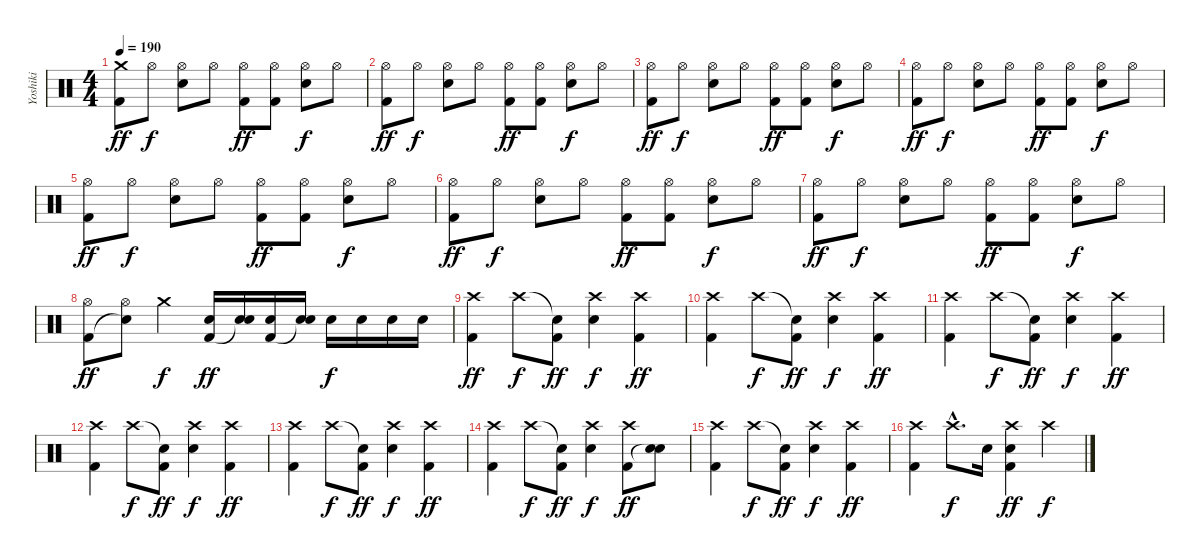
\track ("Yoshiki" "Yoshiki") {instrument percussion}
\staff {score}
\articulation defaults
\ts (4 4)
\tempo 190
\clef neutral
\ks c
("Crash medium (hit)" "Kick (hit) 2").8{dy ff} "Hi-Hat (open)".8{dy f} ("Hi-Hat (open)" "Snare (hit) 2").8 "Hi-Hat (open)".8 ("Hi-Hat (open)" "Kick (hit) 2").8{dy ff} ("Hi-Hat (open)" "Kick (hit) 2").8 ("Hi-Hat (open)" "Snare (hit) 2").8{dy f} "Hi-Hat (open)".8 |
("Hi-Hat (open)" "Kick (hit) 2").8{dy ff} "Hi-Hat (open)".8{dy f} ("Hi-Hat (open)" "Snare (hit) 2").8 "Hi-Hat (open)".8 ("Hi-Hat (open)" "Kick (hit) 2").8{dy ff} ("Hi-Hat (open)" "Kick (hit) 2").8 ("Hi-Hat (open)" "Snare (hit) 2").8{dy f} "Hi-Hat (open)".8 |
("Hi-Hat (open)" "Kick (hit) 2").8{dy ff} "Hi-Hat (open)".8{dy f} ("Hi-Hat (open)" "Snare (hit) 2").8 "Hi-Hat (open)".8 ("Hi-Hat (open)" "Kick (hit) 2").8{dy ff} ("Hi-Hat (open)" "Kick (hit) 2").8 ("Hi-Hat (open)" "Snare (hit) 2").8{dy f} "Hi-Hat (open)".8 |
("Hi-Hat (open)" "Kick (hit) 2").8{dy ff} "Hi-Hat (open)".8{dy f} ("Hi-Hat (open)" "Snare (hit) 2").8 "Hi-Hat (open)".8 ("Hi-Hat (open)" "Kick (hit) 2").8{dy ff} ("Hi-Hat (open)" "Kick (hit) 2").8 ("Hi-Hat (open)" "Snare (hit) 2").8{dy f} "Hi-Hat (open)".8 |
("Hi-Hat (open)" "Kick (hit) 2").8{dy ff} "Hi-Hat (open)".8{dy f} ("Hi-Hat (open)" "Snare (hit) 2").8 "Hi-Hat (open)".8 ("Hi-Hat (open)" "Kick (hit) 2").8{dy ff} ("Hi-Hat (open)" "Kick (hit) 2").8 ("Hi-Hat (open)" "Snare (hit) 2").8{dy f} "Hi-Hat (open)".8 |
("Hi-Hat (open)" "Kick (hit) 2").8{dy ff} "Hi-Hat (open)".8{dy f} ("Hi-Hat (open)" "Snare (hit) 2").8 "Hi-Hat (open)".8 ("Hi-Hat (open)" "Kick (hit) 2").8{dy ff} ("Hi-Hat (open)" "Kick (hit) 2").8 ("Hi-Hat (open)" "Snare (hit) 2").8{dy f} "Hi-Hat (open)".8 |
("Hi-Hat (open)" "Kick (hit) 2").8{dy ff} "Hi-Hat (open)".8{dy f} ("Hi-Hat (open)" "Snare (hit) 2").8 "Hi-Hat (open)".8 ("Hi-Hat (open)" "Kick (hit) 2").8{dy ff} ("Hi-Hat (open)" "Kick (hit) 2").8 ("Hi-Hat (open)" "Snare (hit) 2").8{dy f} "Hi-Hat (open)".8 |
("Hi-Hat (open)" "Kick (hit) 2").8{dy ff} ("Hi-Hat (open)" "Snare (hit)"{t}).8 "Crash medium (hit)".4{dy f} ("Snare (hit) 2" "Kick (hit) 2").16{dy ff} ("Snare (hit) 2" "Snare (hit)"{t}).16 ("Snare (hit) 2" "Kick (hit) 2").16 ("Snare (hit) 2" "Snare (hit)"{t}).16 "Snare (hit) 2".16{dy f} "Snare (hit) 2".16 "Snare (hit) 2".16 "Snare (hit) 2".16 |
("Crash high (hit)" "Kick (hit) 2").4{dy ff} "Crash high (hit)".8{dy f} ("Snare (hit)"{t} "Kick (hit) 2").8{dy ff} ("Crash high (hit)" "Snare (hit) 2").4{dy f} ("Crash high (hit)" "Kick (hit) 2").4{dy ff} |
("Crash high (hit)" "Kick (hit) 2").4 "Crash high (hit)".8{dy f} ("Snare (hit)"{t} "Kick (hit) 2").8{dy ff} ("Crash high (hit)" "Snare (hit) 2").4{dy f} ("Crash high (hit)" "Kick (hit) 2").4{dy ff} |
("Crash high (hit)" "Kick (hit) 2").4 "Crash high (hit)".8{dy f} ("Snare (hit)"{t} "Kick (hit) 2").8{dy ff} ("Crash high (hit)" "Snare (hit) 2").4{dy f} ("Crash high (hit)" "Kick (hit) 2").4{dy ff} |
("Crash high (hit)" "Kick (hit) 2").4 "Crash high (hit)".8{dy f} ("Snare (hit)"{t} "Kick (hit) 2").8{dy ff} ("Crash high (hit)" "Snare (hit) 2").4{dy f} ("Crash high (hit)" "Kick (hit) 2").4{dy ff} |
("Crash high (hit)" "Kick (hit) 2").4 "Crash high (hit)".8{dy f} ("Snare (hit)"{t} "Kick (hit) 2").8{dy ff} ("Crash high (hit)" "Snare (hit) 2").4{dy f} ("Crash high (hit)" "Kick (hit) 2").4{dy ff} |
("Crash high (hit)" "Kick (hit) 2").4 "Crash high (hit)".8{dy f} ("Snare (hit)"{t} "Kick (hit) 2").8{dy ff} ("Crash high (hit)" "Snare (hit) 2").4{dy f} ("Crash high (hit)" "Kick (hit) 2").8{dy ff} ("Snare (hit) 2" "Snare (hit)"{t}).8 |
("Crash high (hit)" "Kick (hit) 2").4 "Crash high (hit)".8{dy f} ("Snare (hit)"{t} "Kick (hit) 2").8{dy ff} ("Crash high (hit)" "Snare (hit) 2").4{dy f} ("Crash high (hit)" "Kick (hit) 2").4{dy ff} |
("Crash high (hit)" "Kick (hit) 2").4 "Crash high (hit)"{hac}.8{d dy f} "Snare (hit) 2".16 ("Crash high (hit)" "Snare (hit) 2" "Kick (hit) 2").4{dy ff} "Crash high (hit)".4{dy f}
